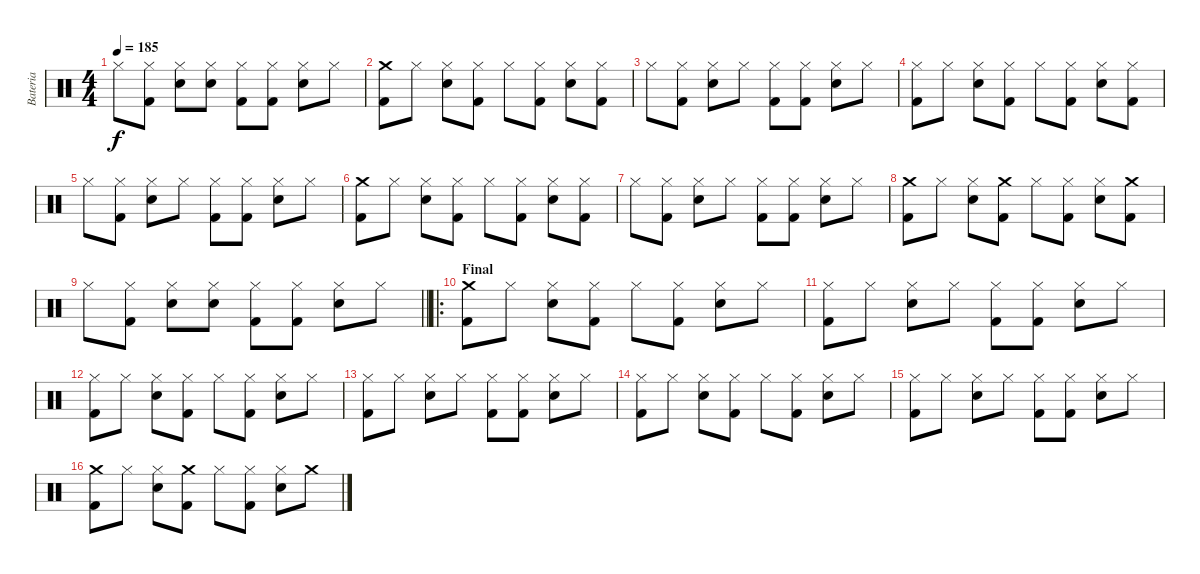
\track ("Bateria" "Bateria") {instrument percussion}
\staff {score}
\articulation defaults
\ts (4 4)
\tempo 185
\clef neutral
\ks c "Hi-Hat (closed)".8{dy f}
("Hi-Hat (closed)" "Kick (hit) 2").8 ("Hi-Hat (closed)" "Snare (hit) 2").8 ("Hi-Hat (closed)" "Snare (hit) 2").8 ("Hi-Hat (closed)" "Kick (hit) 2").8 ("Hi-Hat (closed)" "Kick (hit) 2").8 ("Hi-Hat (closed)" "Snare (hit) 2").8 "Hi-Hat (closed)".8 |
("Crash medium (hit)" "Kick (hit) 2").8 "Hi-Hat (closed)".8 ("Hi-Hat (closed)" "Snare (hit) 2").8 ("Hi-Hat (closed)" "Kick (hit) 2").8 "Hi-Hat (closed)".8 ("Hi-Hat (closed)" "Kick (hit) 2").8 ("Hi-Hat (closed)" "Snare (hit) 2").8 ("Hi-Hat (closed)" "Kick (hit) 2").8 |
"Hi-Hat (closed)".8 ("Hi-Hat (closed)" "Kick (hit) 2").8 ("Hi-Hat (closed)" "Snare (hit) 2").8 "Hi-Hat (closed)".8 ("Hi-Hat (closed)" "Kick (hit) 2").8 ("Hi-Hat (closed)" "Kick (hit) 2").8 ("Hi-Hat (closed)" "Snare (hit) 2").8 "Hi-Hat (closed)".8 |
("Hi-Hat (closed)" "Kick (hit) 2").8 "Hi-Hat (closed)".8 ("Hi-Hat (closed)" "Snare (hit) 2").8 ("Hi-Hat (closed)" "Kick (hit) 2").8 "Hi-Hat (closed)".8 ("Hi-Hat (closed)" "Kick (hit) 2").8 ("Hi-Hat (closed)" "Snare (hit) 2").8 ("Hi-Hat (closed)" "Kick (hit) 2").8 |
"Hi-Hat (closed)".8 ("Hi-Hat (closed)" "Kick (hit) 2").8 ("Hi-Hat (closed)" "Snare (hit) 2").8 "Hi-Hat (closed)".8 ("Hi-Hat (closed)" "Kick (hit) 2").8 ("Hi-Hat (closed)" "Kick (hit) 2").8 ("Hi-Hat (closed)" "Snare (hit) 2").8 "Hi-Hat (closed)".8 |
("Crash medium (hit)" "Kick (hit) 2").8 "Hi-Hat (closed)".8 ("Hi-Hat (closed)" "Snare (hit) 2").8 ("Hi-Hat (closed)" "Kick (hit) 2").8 "Hi-Hat (closed)".8 ("Hi-Hat (closed)" "Kick (hit) 2").8 ("Hi-Hat (closed)" "Snare (hit) 2").8 ("Hi-Hat (closed)" "Kick (hit) 2").8 |
"Hi-Hat (closed)".8 ("Hi-Hat (closed)" "Kick (hit) 2").8 ("Hi-Hat (closed)" "Snare (hit) 2").8 "Hi-Hat (closed)".8 ("Hi-Hat (closed)" "Kick (hit) 2").8 ("Hi-Hat (closed)" "Kick (hit) 2").8 ("Hi-Hat (closed)" "Snare (hit) 2").8 "Hi-Hat (closed)".8 |
("Crash medium (hit)" "Kick (hit) 2").8 "Hi-Hat (closed)".8 ("Hi-Hat (closed)" "Snare (hit) 2").8 ("Crash medium (hit)" "Kick (hit) 2").8 "Hi-Hat (closed)".8 ("Hi-Hat (closed)" "Kick (hit) 2").8 ("Hi-Hat (closed)" "Snare (hit) 2").8 ("Crash medium (hit)" "Kick (hit) 2").8 |
\barLineRight lightlight "Hi-Hat (closed)".8
("Hi-Hat (closed)" "Kick (hit) 2").8 ("Hi-Hat (closed)" "Snare (hit) 2").8 ("Hi-Hat (closed)" "Snare (hit) 2").8 ("Hi-Hat (closed)" "Kick (hit) 2").8 ("Hi-Hat (closed)" "Kick (hit) 2").8 ("Hi-Hat (closed)" "Snare (hit) 2").8 "Hi-Hat (closed)".8 |
\ro
\section ("" "Final")
("Crash medium (hit)" "Kick (hit) 2").8 "Hi-Hat (closed)".8 ("Hi-Hat (closed)" "Snare (hit) 2").8 ("Hi-Hat (closed)" "Kick (hit) 2").8 "Hi-Hat (closed)".8 ("Hi-Hat (closed)" "Kick (hit) 2").8 ("Hi-Hat (closed)" "Snare (hit) 2").8 "Hi-Hat (closed)".8 |
("Hi-Hat (closed)" "Kick (hit) 2").8 "Hi-Hat (closed)".8 ("Hi-Hat (closed)" "Snare (hit) 2").8 "Hi-Hat (closed)".8 ("Hi-Hat (closed)" "Kick (hit) 2").8 ("Hi-Hat (closed)" "Kick (hit) 2").8 ("Hi-Hat (closed)" "Snare (hit) 2").8 "Hi-Hat (closed)".8 |
("Hi-Hat (closed)" "Kick (hit) 2").8 "Hi-Hat (closed)".8 ("Hi-Hat (closed)" "Snare (hit) 2").8 ("Hi-Hat (closed)" "Kick (hit) 2").8 "Hi-Hat (closed)".8 ("Hi-Hat (closed)" "Kick (hit) 2").8 ("Hi-Hat (closed)" "Snare (hit) 2").8 "Hi-Hat (closed)".8 |
("Hi-Hat (closed)" "Kick (hit) 2").8 "Hi-Hat (closed)".8 ("Hi-Hat (closed)" "Snare (hit) 2").8 "Hi-Hat (closed)".8 ("Hi-Hat (closed)" "Kick (hit) 2").8 ("Hi-Hat (closed)" "Kick (hit) 2").8 ("Hi-Hat (closed)" "Snare (hit) 2").8 "Hi-Hat (closed)".8 |
("Hi-Hat (closed)" "Kick (hit) 2").8 "Hi-Hat (closed)".8 ("Hi-Hat (closed)" "Snare (hit) 2").8 ("Hi-Hat (closed)" "Kick (hit) 2").8 "Hi-Hat (closed)".8 ("Hi-Hat (closed)" "Kick (hit) 2").8 ("Hi-Hat (closed)" "Snare (hit) 2").8 "Hi-Hat (closed)".8 |
("Hi-Hat (closed)" "Kick (hit) 2").8 "Hi-Hat (closed)".8 ("Hi-Hat (closed)" "Snare (hit) 2").8 "Hi-Hat (closed)".8 ("Hi-Hat (closed)" "Kick (hit) 2").8 ("Hi-Hat (closed)" "Kick (hit) 2").8 ("Hi-Hat (closed)" "Snare (hit) 2").8 "Hi-Hat (closed)".8 |
("Crash medium (hit)" "Kick (hit) 2").8 "Hi-Hat (closed)".8 ("Hi-Hat (closed)" "Snare (hit) 2").8 ("Crash medium (hit)" "Kick (hit) 2").8 "Hi-Hat (closed)".8 ("Hi-Hat (closed)" "Kick (hit) 2").8 ("Hi-Hat (closed)" "Snare (hit) 2").8 "Crash medium (hit)".8
